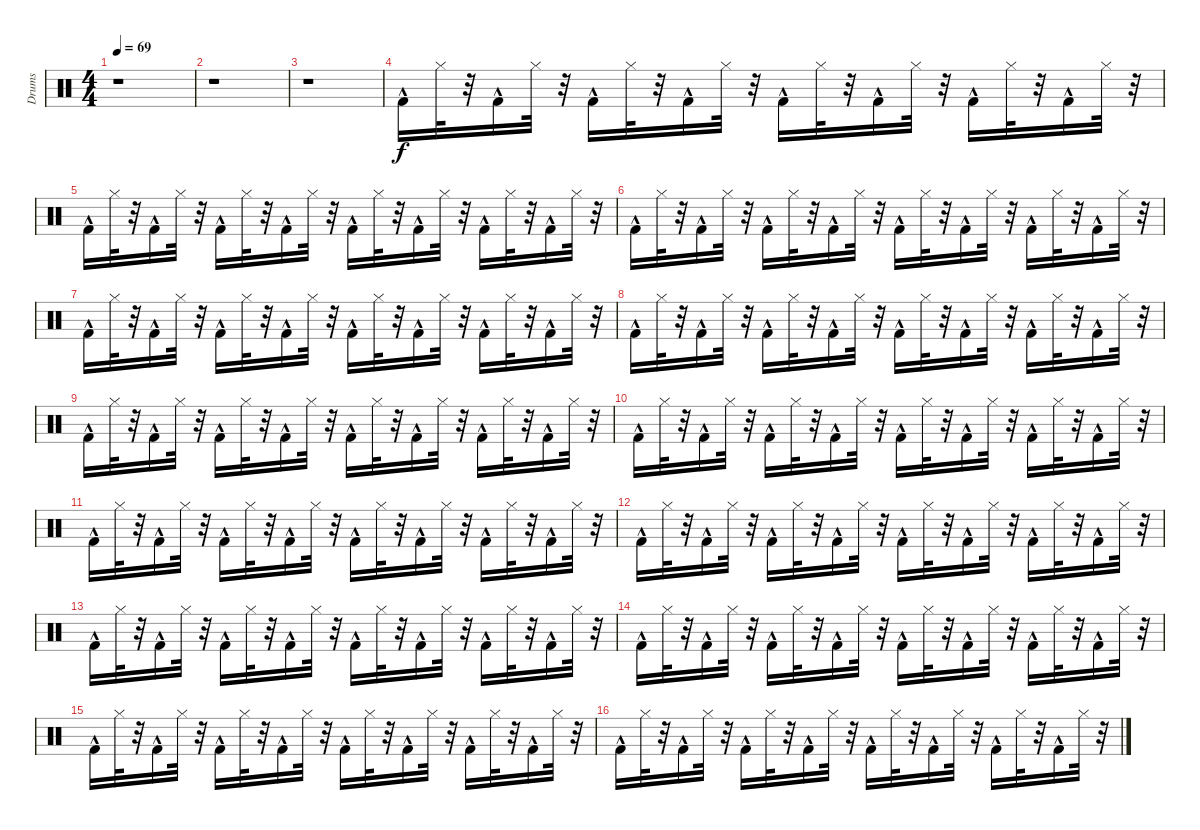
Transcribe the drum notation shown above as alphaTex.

\track ("Drums" "Drums") {instrument percussion}
\staff {score}
\articulation defaults
\ts (4 4)
\tempo 69
\clef neutral
\ks c
r.1{dy mf} |
r.1 |
r.1 |
"Kick (hit) 2"{hac}.16{dy f} "Hi-Hat (closed)".32 r.32 "Kick (hit) 2"{hac}.16 "Hi-Hat (closed)".32 r.32 "Kick (hit) 2"{hac}.16 "Hi-Hat (closed)".32 r.32 "Kick (hit) 2"{hac}.16 "Hi-Hat (closed)".32 r.32 "Kick (hit) 2"{hac}.16 "Hi-Hat (closed)".32 r.32 "Kick (hit) 2"{hac}.16 "Hi-Hat (closed)".32 r.32 "Kick (hit) 2"{hac}.16 "Hi-Hat (closed)".32 r.32 "Kick (hit) 2"{hac}.16 "Hi-Hat (closed)".32 r.32 |
"Kick (hit) 2"{hac}.16 "Hi-Hat (closed)".32 r.32 "Kick (hit) 2"{hac}.16 "Hi-Hat (closed)".32 r.32 "Kick (hit) 2"{hac}.16 "Hi-Hat (closed)".32 r.32 "Kick (hit) 2"{hac}.16 "Hi-Hat (closed)".32 r.32 "Kick (hit) 2"{hac}.16 "Hi-Hat (closed)".32 r.32 "Kick (hit) 2"{hac}.16 "Hi-Hat (closed)".32 r.32 "Kick (hit) 2"{hac}.16 "Hi-Hat (closed)".32 r.32 "Kick (hit) 2"{hac}.16 "Hi-Hat (closed)".32 r.32 |
"Kick (hit) 2"{hac}.16 "Hi-Hat (closed)".32 r.32 "Kick (hit) 2"{hac}.16 "Hi-Hat (closed)".32 r.32 "Kick (hit) 2"{hac}.16 "Hi-Hat (closed)".32 r.32 "Kick (hit) 2"{hac}.16 "Hi-Hat (closed)".32 r.32 "Kick (hit) 2"{hac}.16 "Hi-Hat (closed)".32 r.32 "Kick (hit) 2"{hac}.16 "Hi-Hat (closed)".32 r.32 "Kick (hit) 2"{hac}.16 "Hi-Hat (closed)".32 r.32 "Kick (hit) 2"{hac}.16 "Hi-Hat (closed)".32 r.32 |
"Kick (hit) 2"{hac}.16 "Hi-Hat (closed)".32 r.32 "Kick (hit) 2"{hac}.16 "Hi-Hat (closed)".32 r.32 "Kick (hit) 2"{hac}.16 "Hi-Hat (closed)".32 r.32 "Kick (hit) 2"{hac}.16 "Hi-Hat (closed)".32 r.32 "Kick (hit) 2"{hac}.16 "Hi-Hat (closed)".32 r.32 "Kick (hit) 2"{hac}.16 "Hi-Hat (closed)".32 r.32 "Kick (hit) 2"{hac}.16 "Hi-Hat (closed)".32 r.32 "Kick (hit) 2"{hac}.16 "Hi-Hat (closed)".32 r.32 |
"Kick (hit) 2"{hac}.16 "Hi-Hat (closed)".32 r.32 "Kick (hit) 2"{hac}.16 "Hi-Hat (closed)".32 r.32 "Kick (hit) 2"{hac}.16 "Hi-Hat (closed)".32 r.32 "Kick (hit) 2"{hac}.16 "Hi-Hat (closed)".32 r.32 "Kick (hit) 2"{hac}.16 "Hi-Hat (closed)".32 r.32 "Kick (hit) 2"{hac}.16 "Hi-Hat (closed)".32 r.32 "Kick (hit) 2"{hac}.16 "Hi-Hat (closed)".32 r.32 "Kick (hit) 2"{hac}.16 "Hi-Hat (closed)".32 r.32 |
"Kick (hit) 2"{hac}.16 "Hi-Hat (closed)".32 r.32 "Kick (hit) 2"{hac}.16 "Hi-Hat (closed)".32 r.32 "Kick (hit) 2"{hac}.16 "Hi-Hat (closed)".32 r.32 "Kick (hit) 2"{hac}.16 "Hi-Hat (closed)".32 r.32 "Kick (hit) 2"{hac}.16 "Hi-Hat (closed)".32 r.32 "Kick (hit) 2"{hac}.16 "Hi-Hat (closed)".32 r.32 "Kick (hit) 2"{hac}.16 "Hi-Hat (closed)".32 r.32 "Kick (hit) 2"{hac}.16 "Hi-Hat (closed)".32 r.32 |
"Kick (hit) 2"{hac}.16 "Hi-Hat (closed)".32 r.32 "Kick (hit) 2"{hac}.16 "Hi-Hat (closed)".32 r.32 "Kick (hit) 2"{hac}.16 "Hi-Hat (closed)".32 r.32 "Kick (hit) 2"{hac}.16 "Hi-Hat (closed)".32 r.32 "Kick (hit) 2"{hac}.16 "Hi-Hat (closed)".32 r.32 "Kick (hit) 2"{hac}.16 "Hi-Hat (closed)".32 r.32 "Kick (hit) 2"{hac}.16 "Hi-Hat (closed)".32 r.32 "Kick (hit) 2"{hac}.16 "Hi-Hat (closed)".32 r.32 |
"Kick (hit) 2"{hac}.16 "Hi-Hat (closed)".32 r.32 "Kick (hit) 2"{hac}.16 "Hi-Hat (closed)".32 r.32 "Kick (hit) 2"{hac}.16 "Hi-Hat (closed)".32 r.32 "Kick (hit) 2"{hac}.16 "Hi-Hat (closed)".32 r.32 "Kick (hit) 2"{hac}.16 "Hi-Hat (closed)".32 r.32 "Kick (hit) 2"{hac}.16 "Hi-Hat (closed)".32 r.32 "Kick (hit) 2"{hac}.16 "Hi-Hat (closed)".32 r.32 "Kick (hit) 2"{hac}.16 "Hi-Hat (closed)".32 r.32 |
"Kick (hit) 2"{hac}.16 "Hi-Hat (closed)".32 r.32 "Kick (hit) 2"{hac}.16 "Hi-Hat (closed)".32 r.32 "Kick (hit) 2"{hac}.16 "Hi-Hat (closed)".32 r.32 "Kick (hit) 2"{hac}.16 "Hi-Hat (closed)".32 r.32 "Kick (hit) 2"{hac}.16 "Hi-Hat (closed)".32 r.32 "Kick (hit) 2"{hac}.16 "Hi-Hat (closed)".32 r.32 "Kick (hit) 2"{hac}.16 "Hi-Hat (closed)".32 r.32 "Kick (hit) 2"{hac}.16 "Hi-Hat (closed)".32 r.32 |
"Kick (hit) 2"{hac}.16 "Hi-Hat (closed)".32 r.32 "Kick (hit) 2"{hac}.16 "Hi-Hat (closed)".32 r.32 "Kick (hit) 2"{hac}.16 "Hi-Hat (closed)".32 r.32 "Kick (hit) 2"{hac}.16 "Hi-Hat (closed)".32 r.32 "Kick (hit) 2"{hac}.16 "Hi-Hat (closed)".32 r.32 "Kick (hit) 2"{hac}.16 "Hi-Hat (closed)".32 r.32 "Kick (hit) 2"{hac}.16 "Hi-Hat (closed)".32 r.32 "Kick (hit) 2"{hac}.16 "Hi-Hat (closed)".32 r.32 |
"Kick (hit) 2"{hac}.16 "Hi-Hat (closed)".32 r.32 "Kick (hit) 2"{hac}.16 "Hi-Hat (closed)".32 r.32 "Kick (hit) 2"{hac}.16 "Hi-Hat (closed)".32 r.32 "Kick (hit) 2"{hac}.16 "Hi-Hat (closed)".32 r.32 "Kick (hit) 2"{hac}.16 "Hi-Hat (closed)".32 r.32 "Kick (hit) 2"{hac}.16 "Hi-Hat (closed)".32 r.32 "Kick (hit) 2"{hac}.16 "Hi-Hat (closed)".32 r.32 "Kick (hit) 2"{hac}.16 "Hi-Hat (closed)".32 r.32 |
"Kick (hit) 2"{hac}.16 "Hi-Hat (closed)".32 r.32 "Kick (hit) 2"{hac}.16 "Hi-Hat (closed)".32 r.32 "Kick (hit) 2"{hac}.16 "Hi-Hat (closed)".32 r.32 "Kick (hit) 2"{hac}.16 "Hi-Hat (closed)".32 r.32 "Kick (hit) 2"{hac}.16 "Hi-Hat (closed)".32 r.32 "Kick (hit) 2"{hac}.16 "Hi-Hat (closed)".32 r.32 "Kick (hit) 2"{hac}.16 "Hi-Hat (closed)".32 r.32 "Kick (hit) 2"{hac}.16 "Hi-Hat (closed)".32 r.32 |
"Kick (hit) 2"{hac}.16 "Hi-Hat (closed)".32 r.32 "Kick (hit) 2"{hac}.16 "Hi-Hat (closed)".32 r.32 "Kick (hit) 2"{hac}.16 "Hi-Hat (closed)".32 r.32 "Kick (hit) 2"{hac}.16 "Hi-Hat (closed)".32 r.32 "Kick (hit) 2"{hac}.16 "Hi-Hat (closed)".32 r.32 "Kick (hit) 2"{hac}.16 "Hi-Hat (closed)".32 r.32 "Kick (hit) 2"{hac}.16 "Hi-Hat (closed)".32 r.32 "Kick (hit) 2"{hac}.16 "Hi-Hat (closed)".32 r.32
